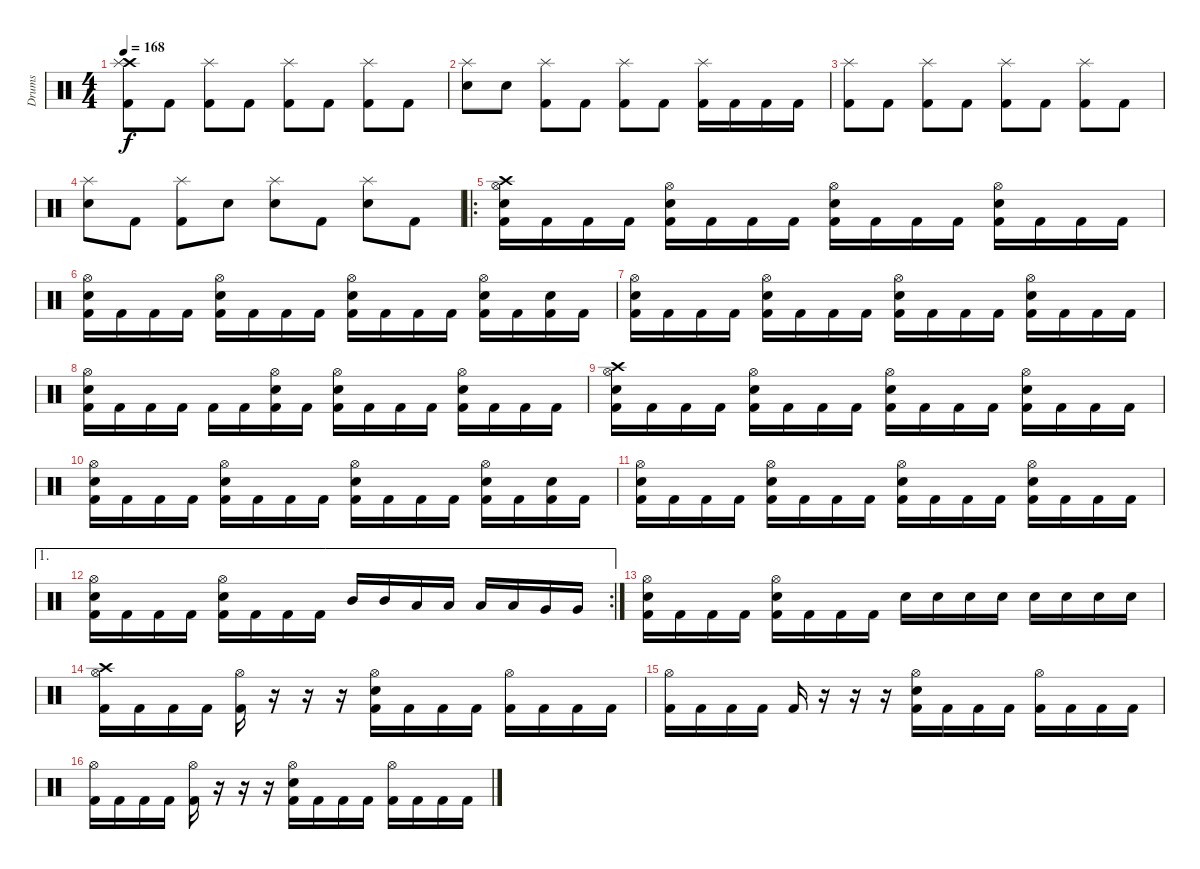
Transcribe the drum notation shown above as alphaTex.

\track ("Drums" "Drums") {instrument percussion}
\staff {score}
\articulation defaults
\ts (4 4)
\tempo 168
\clef neutral
\ks c
("Crash high (hit)" "Kick (hit) 2" "Splash (hit)").8{dy f} "Kick (hit) 2".8 ("Kick (hit) 2" "Splash (hit)").8 "Kick (hit) 2".8 ("Kick (hit) 2" "Splash (hit)").8 "Kick (hit) 2".8 ("Kick (hit) 2" "Splash (hit)").8 "Kick (hit) 2".8 |
("Electric Snare (hit)" "Splash (hit)").8 "Electric Snare (hit)".8 ("Kick (hit) 2" "Splash (hit)").8 "Kick (hit) 2".8 ("Kick (hit) 2" "Splash (hit)").8 "Kick (hit) 2".8 ("Kick (hit) 2" "Splash (hit)").16 "Kick (hit) 2".16 "Kick (hit) 2".16 "Kick (hit) 2".16 |
("Kick (hit) 2" "Splash (hit)").8 "Kick (hit) 2".8 ("Kick (hit) 2" "Splash (hit)").8 "Kick (hit) 2".8 ("Kick (hit) 2" "Splash (hit)").8 "Kick (hit) 2".8 ("Kick (hit) 2" "Splash (hit)").8 "Kick (hit) 2".8 |
("Electric Snare (hit)" "Splash (hit)").8 "Kick (hit) 2".8 ("Kick (hit) 2" "Splash (hit)").8 "Electric Snare (hit)".8 ("Electric Snare (hit)" "Splash (hit)").8 "Kick (hit) 2".8 ("Electric Snare (hit)" "Splash (hit)").8 "Kick (hit) 2".8 |
\ro
("Crash high (hit)" "Electric Snare (hit)" "Kick (hit) 2" "Hi-Hat (open)").16 "Kick (hit) 2".16 "Kick (hit) 2".16 "Kick (hit) 2".16 ("Electric Snare (hit)" "Kick (hit) 2" "Hi-Hat (open)").16 "Kick (hit) 2".16 "Kick (hit) 2".16 "Kick (hit) 2".16 ("Electric Snare (hit)" "Kick (hit) 2" "Hi-Hat (open)").16 "Kick (hit) 2".16 "Kick (hit) 2".16 "Kick (hit) 2".16 ("Electric Snare (hit)" "Kick (hit) 2" "Hi-Hat (open)").16 "Kick (hit) 2".16 "Kick (hit) 2".16 "Kick (hit) 2".16 |
("Electric Snare (hit)" "Kick (hit) 2" "Hi-Hat (open)").16 "Kick (hit) 2".16 "Kick (hit) 2".16 "Kick (hit) 2".16 ("Electric Snare (hit)" "Kick (hit) 2" "Hi-Hat (open)").16 "Kick (hit) 2".16 "Kick (hit) 2".16 "Kick (hit) 2".16 ("Electric Snare (hit)" "Kick (hit) 2" "Hi-Hat (open)").16 "Kick (hit) 2".16 "Kick (hit) 2".16 "Kick (hit) 2".16 ("Electric Snare (hit)" "Kick (hit) 2" "Hi-Hat (open)").16 "Kick (hit) 2".16 ("Electric Snare (hit)" "Kick (hit) 2").16 "Kick (hit) 2".16 |
("Electric Snare (hit)" "Kick (hit) 2" "Hi-Hat (open)").16 "Kick (hit) 2".16 "Kick (hit) 2".16 "Kick (hit) 2".16 ("Electric Snare (hit)" "Kick (hit) 2" "Hi-Hat (open)").16 "Kick (hit) 2".16 "Kick (hit) 2".16 "Kick (hit) 2".16 ("Electric Snare (hit)" "Kick (hit) 2" "Hi-Hat (open)").16 "Kick (hit) 2".16 "Kick (hit) 2".16 "Kick (hit) 2".16 ("Electric Snare (hit)" "Kick (hit) 2" "Hi-Hat (open)").16 "Kick (hit) 2".16 "Kick (hit) 2".16 "Kick (hit) 2".16 |
("Electric Snare (hit)" "Kick (hit) 2" "Hi-Hat (open)").16 "Kick (hit) 2".16 "Kick (hit) 2".16 "Kick (hit) 2".16 "Kick (hit) 2".16 "Kick (hit) 2".16 ("Electric Snare (hit)" "Kick (hit) 2" "Hi-Hat (open)").16 "Kick (hit) 2".16 ("Electric Snare (hit)" "Kick (hit) 2" "Hi-Hat (open)").16 "Kick (hit) 2".16 "Kick (hit) 2".16 "Kick (hit) 2".16 ("Electric Snare (hit)" "Kick (hit) 2" "Hi-Hat (open)").16 "Kick (hit) 2".16 "Kick (hit) 2".16 "Kick (hit) 2".16 |
("Crash high (hit)" "Electric Snare (hit)" "Kick (hit) 2" "Hi-Hat (open)").16 "Kick (hit) 2".16 "Kick (hit) 2".16 "Kick (hit) 2".16 ("Electric Snare (hit)" "Kick (hit) 2" "Hi-Hat (open)").16 "Kick (hit) 2".16 "Kick (hit) 2".16 "Kick (hit) 2".16 ("Electric Snare (hit)" "Kick (hit) 2" "Hi-Hat (open)").16 "Kick (hit) 2".16 "Kick (hit) 2".16 "Kick (hit) 2".16 ("Electric Snare (hit)" "Kick (hit) 2" "Hi-Hat (open)").16 "Kick (hit) 2".16 "Kick (hit) 2".16 "Kick (hit) 2".16 |
("Electric Snare (hit)" "Kick (hit) 2" "Hi-Hat (open)").16 "Kick (hit) 2".16 "Kick (hit) 2".16 "Kick (hit) 2".16 ("Electric Snare (hit)" "Kick (hit) 2" "Hi-Hat (open)").16 "Kick (hit) 2".16 "Kick (hit) 2".16 "Kick (hit) 2".16 ("Electric Snare (hit)" "Kick (hit) 2" "Hi-Hat (open)").16 "Kick (hit) 2".16 "Kick (hit) 2".16 "Kick (hit) 2".16 ("Electric Snare (hit)" "Kick (hit) 2" "Hi-Hat (open)").16 "Kick (hit) 2".16 ("Electric Snare (hit)" "Kick (hit) 2").16 "Kick (hit) 2".16 |
("Electric Snare (hit)" "Kick (hit) 2" "Hi-Hat (open)").16 "Kick (hit) 2".16 "Kick (hit) 2".16 "Kick (hit) 2".16 ("Electric Snare (hit)" "Kick (hit) 2" "Hi-Hat (open)").16 "Kick (hit) 2".16 "Kick (hit) 2".16 "Kick (hit) 2".16 ("Electric Snare (hit)" "Kick (hit) 2" "Hi-Hat (open)").16 "Kick (hit) 2".16 "Kick (hit) 2".16 "Kick (hit) 2".16 ("Electric Snare (hit)" "Kick (hit) 2" "Hi-Hat (open)").16 "Kick (hit) 2".16 "Kick (hit) 2".16 "Kick (hit) 2".16 |
\ae 1
\rc 2
("Electric Snare (hit)" "Kick (hit) 2" "Hi-Hat (open)").16 "Kick (hit) 2".16 "Kick (hit) 2".16 "Kick (hit) 2".16 ("Electric Snare (hit)" "Kick (hit) 2" "Hi-Hat (open)").16 "Kick (hit) 2".16 "Kick (hit) 2".16 "Kick (hit) 2".16 "Mid Tom (hit)".16 "Mid Tom (hit)".16 "Low Tom (hit)".16 "Low Tom (hit)".16 "Low Tom (hit)".16 "Low Tom (hit)".16 "Very Low Tom (hit)".16 "Very Low Tom (hit)".16 |
("Electric Snare (hit)" "Kick (hit) 2" "Hi-Hat (open)").16 "Kick (hit) 2".16 "Kick (hit) 2".16 "Kick (hit) 2".16 ("Electric Snare (hit)" "Kick (hit) 2" "Hi-Hat (open)").16 "Kick (hit) 2".16 "Kick (hit) 2".16 "Kick (hit) 2".16 "Electric Snare (hit)".16 "Electric Snare (hit)".16 "Electric Snare (hit)".16 "Electric Snare (hit)".16 "Electric Snare (hit)".16 "Electric Snare (hit)".16 "Electric Snare (hit)".16 "Electric Snare (hit)".16 |
("Crash high (hit)" "Kick (hit) 2" "Hi-Hat (open)").16 "Kick (hit) 2".16 "Kick (hit) 2".16 "Kick (hit) 2".16 ("Kick (hit) 2" "Hi-Hat (open)").16 r.16 r.16 r.16 ("Electric Snare (hit)" "Kick (hit) 2" "Hi-Hat (open)").16 "Kick (hit) 2".16 "Kick (hit) 2".16 "Kick (hit) 2".16 ("Kick (hit) 2" "Hi-Hat (open)").16 "Kick (hit) 2".16 "Kick (hit) 2".16 "Kick (hit) 2".16 |
("Kick (hit) 2" "Hi-Hat (open)").16 "Kick (hit) 2".16 "Kick (hit) 2".16 "Kick (hit) 2".16 "Kick (hit) 2".16 r.16 r.16 r.16 ("Electric Snare (hit)" "Kick (hit) 2" "Hi-Hat (open)").16 "Kick (hit) 2".16 "Kick (hit) 2".16 "Kick (hit) 2".16 ("Kick (hit) 2" "Hi-Hat (open)").16 "Kick (hit) 2".16 "Kick (hit) 2".16 "Kick (hit) 2".16 |
("Kick (hit) 2" "Hi-Hat (open)").16 "Kick (hit) 2".16 "Kick (hit) 2".16 "Kick (hit) 2".16 ("Kick (hit) 2" "Hi-Hat (open)").16 r.16 r.16 r.16 ("Electric Snare (hit)" "Kick (hit) 2" "Hi-Hat (open)").16 "Kick (hit) 2".16 "Kick (hit) 2".16 "Kick (hit) 2".16 ("Kick (hit) 2" "Hi-Hat (open)").16 "Kick (hit) 2".16 "Kick (hit) 2".16 "Kick (hit) 2".16
